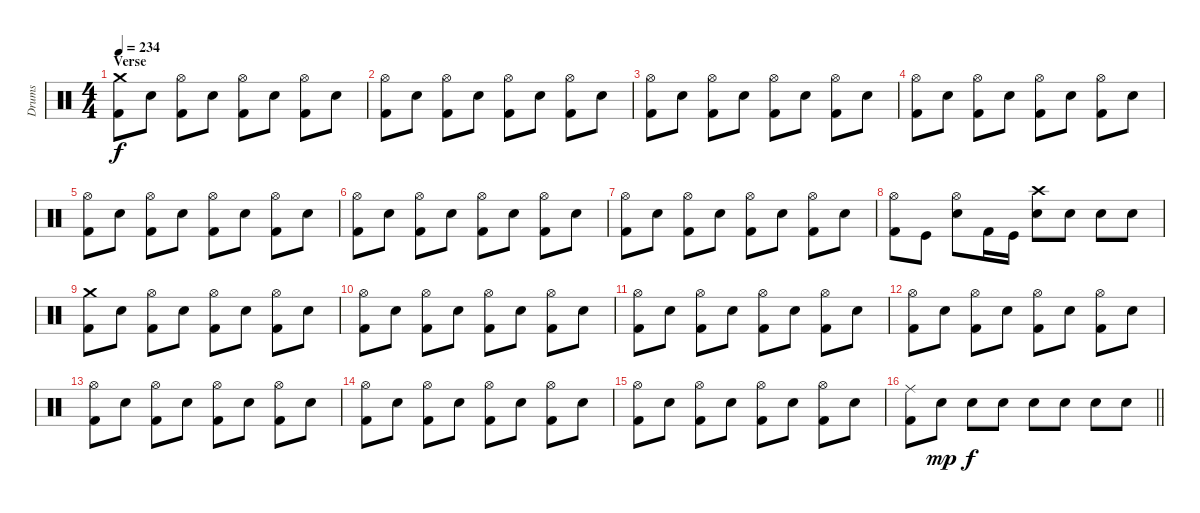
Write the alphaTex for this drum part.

\track ("Drums" "Drums") {instrument percussion}
\staff {score}
\articulation defaults
\ts (4 4)
\section ("" "Verse")
\tempo 234
\clef neutral
\ks c
("Crash medium (hit)" "Kick (hit) 2").8{dy f} "Snare (hit) 2".8 ("Hi-Hat (open)" "Kick (hit) 2").8 "Snare (hit) 2".8 ("Hi-Hat (open)" "Kick (hit) 2").8 "Snare (hit) 2".8 ("Hi-Hat (open)" "Kick (hit) 2").8 "Snare (hit) 2".8 |
("Hi-Hat (open)" "Kick (hit) 2").8 "Snare (hit) 2".8 ("Hi-Hat (open)" "Kick (hit) 2").8 "Snare (hit) 2".8 ("Hi-Hat (open)" "Kick (hit) 2").8 "Snare (hit) 2".8 ("Hi-Hat (open)" "Kick (hit) 2").8 "Snare (hit) 2".8 |
("Hi-Hat (open)" "Kick (hit) 2").8 "Snare (hit) 2".8 ("Hi-Hat (open)" "Kick (hit) 2").8 "Snare (hit) 2".8 ("Hi-Hat (open)" "Kick (hit) 2").8 "Snare (hit) 2".8 ("Hi-Hat (open)" "Kick (hit) 2").8 "Snare (hit) 2".8 |
("Hi-Hat (open)" "Kick (hit) 2").8 "Snare (hit) 2".8 ("Hi-Hat (open)" "Kick (hit) 2").8 "Snare (hit) 2".8 ("Hi-Hat (open)" "Kick (hit) 2").8 "Snare (hit) 2".8 ("Hi-Hat (open)" "Kick (hit) 2").8 "Snare (hit) 2".8 |
("Hi-Hat (open)" "Kick (hit) 2").8 "Snare (hit) 2".8 ("Hi-Hat (open)" "Kick (hit) 2").8 "Snare (hit) 2".8 ("Hi-Hat (open)" "Kick (hit) 2").8 "Snare (hit) 2".8 ("Hi-Hat (open)" "Kick (hit) 2").8 "Snare (hit) 2".8 |
("Hi-Hat (open)" "Kick (hit) 2").8 "Snare (hit) 2".8 ("Hi-Hat (open)" "Kick (hit) 2").8 "Snare (hit) 2".8 ("Hi-Hat (open)" "Kick (hit) 2").8 "Snare (hit) 2".8 ("Hi-Hat (open)" "Kick (hit) 2").8 "Snare (hit) 2".8 |
("Hi-Hat (open)" "Kick (hit) 2").8 "Snare (hit) 2".8 ("Hi-Hat (open)" "Kick (hit) 2").8 "Snare (hit) 2".8 ("Hi-Hat (open)" "Kick (hit) 2").8 "Snare (hit) 2".8 ("Hi-Hat (open)" "Kick (hit) 2").8 "Snare (hit) 2".8 |
("Hi-Hat (open)" "Kick (hit) 2").8 "Kick (hit)".8 ("Hi-Hat (open)" "Snare (hit) 2").8 "Kick (hit) 2".16 "Kick (hit)".16 ("Crash high (hit)" "Snare (hit) 2").8 "Snare (hit) 2".8 "Snare (hit) 2".8 "Snare (hit) 2".8 |
("Crash medium (hit)" "Kick (hit) 2").8 "Snare (hit) 2".8 ("Hi-Hat (open)" "Kick (hit) 2").8 "Snare (hit) 2".8 ("Hi-Hat (open)" "Kick (hit) 2").8 "Snare (hit) 2".8 ("Hi-Hat (open)" "Kick (hit) 2").8 "Snare (hit) 2".8 |
("Hi-Hat (open)" "Kick (hit) 2").8 "Snare (hit) 2".8 ("Hi-Hat (open)" "Kick (hit) 2").8 "Snare (hit) 2".8 ("Hi-Hat (open)" "Kick (hit) 2").8 "Snare (hit) 2".8 ("Hi-Hat (open)" "Kick (hit) 2").8 "Snare (hit) 2".8 |
("Hi-Hat (open)" "Kick (hit) 2").8 "Snare (hit) 2".8 ("Hi-Hat (open)" "Kick (hit) 2").8 "Snare (hit) 2".8 ("Hi-Hat (open)" "Kick (hit) 2").8 "Snare (hit) 2".8 ("Hi-Hat (open)" "Kick (hit) 2").8 "Snare (hit) 2".8 |
("Hi-Hat (open)" "Kick (hit) 2").8 "Snare (hit) 2".8 ("Hi-Hat (open)" "Kick (hit) 2").8 "Snare (hit) 2".8 ("Hi-Hat (open)" "Kick (hit) 2").8 "Snare (hit) 2".8 ("Hi-Hat (open)" "Kick (hit) 2").8 "Snare (hit) 2".8 |
("Hi-Hat (open)" "Kick (hit) 2").8 "Snare (hit) 2".8 ("Hi-Hat (open)" "Kick (hit) 2").8 "Snare (hit) 2".8 ("Hi-Hat (open)" "Kick (hit) 2").8 "Snare (hit) 2".8 ("Hi-Hat (open)" "Kick (hit) 2").8 "Snare (hit) 2".8 |
("Hi-Hat (open)" "Kick (hit) 2").8 "Snare (hit) 2".8 ("Hi-Hat (open)" "Kick (hit) 2").8 "Snare (hit) 2".8 ("Hi-Hat (open)" "Kick (hit) 2").8 "Snare (hit) 2".8 ("Hi-Hat (open)" "Kick (hit) 2").8 "Snare (hit) 2".8 |
("Hi-Hat (open)" "Kick (hit) 2").8 "Snare (hit) 2".8 ("Hi-Hat (open)" "Kick (hit) 2").8 "Snare (hit) 2".8 ("Hi-Hat (open)" "Kick (hit) 2").8 "Snare (hit) 2".8 ("Hi-Hat (open)" "Kick (hit) 2").8 "Snare (hit) 2".8 |
\barLineRight lightlight
("Ride (middle)" "Kick (hit) 2").8 "Snare (hit) 2".8{dy mp} "Snare (hit) 2".8{dy f} "Snare (hit) 2".8 "Snare (hit) 2".8 "Snare (hit) 2".8 "Snare (hit) 2".8 "Snare (hit) 2".8
